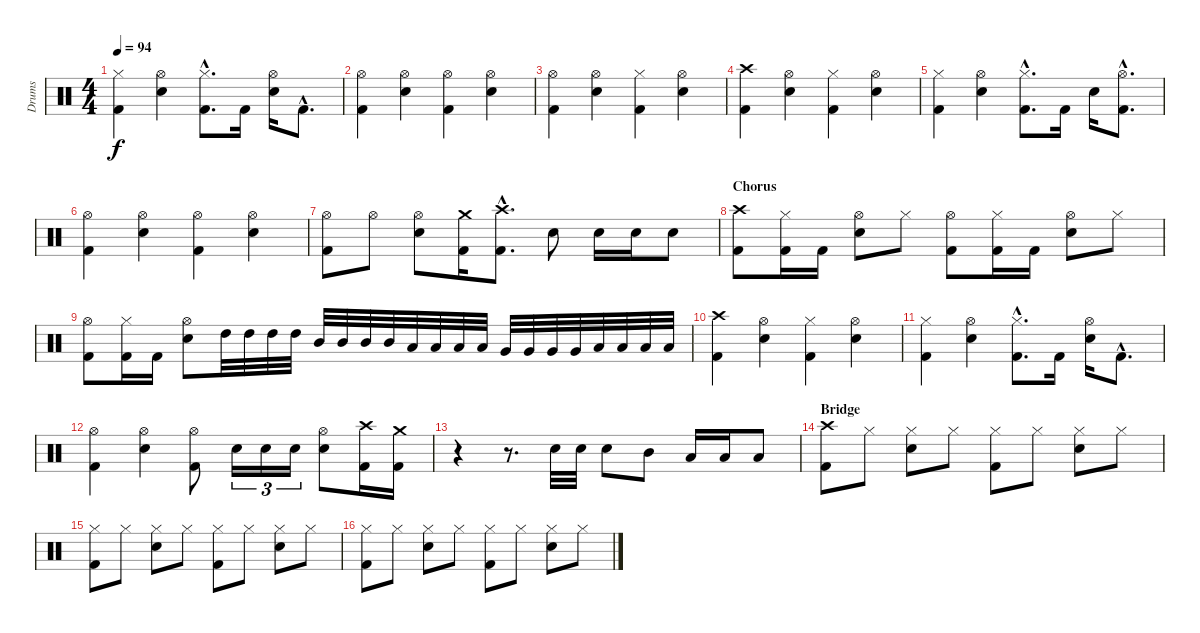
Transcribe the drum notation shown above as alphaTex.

\track ("Drums" "Drums") {instrument percussion}
\staff {score}
\articulation defaults
\ts (4 4)
\tempo 94
\clef neutral
\ks c
("Hi-Hat (closed)" "Kick (hit) 2").4{dy f} ("Hi-Hat (open)" "Snare (hit) 2").4 ("Hi-Hat (closed)"{hac} "Kick (hit) 2"{hac}).8{d} "Kick (hit) 2".16 ("Hi-Hat (open)" "Snare (hit) 2").16 "Kick (hit) 2"{hac}.8{d} |
("Hi-Hat (open)" "Kick (hit) 2").4 ("Hi-Hat (open)" "Snare (hit) 2").4 ("Hi-Hat (open)" "Kick (hit) 2").4 ("Hi-Hat (open)" "Snare (hit) 2").4 |
("Hi-Hat (open)" "Kick (hit) 2").4 ("Hi-Hat (open)" "Snare (hit) 2").4 ("Hi-Hat (closed)" "Kick (hit) 2").4 ("Hi-Hat (open)" "Snare (hit) 2").4 |
("Crash high (hit)" "Kick (hit) 2").4 ("Hi-Hat (open)" "Snare (hit) 2").4 ("Hi-Hat (closed)" "Kick (hit) 2").4 ("Hi-Hat (open)" "Snare (hit) 2").4 |
("Hi-Hat (closed)" "Kick (hit) 2").4 ("Hi-Hat (open)" "Snare (hit) 2").4 ("Hi-Hat (closed)"{hac} "Kick (hit) 2"{hac}).8{d} "Kick (hit) 2".16 "Snare (hit) 2".16 ("Hi-Hat (open)"{hac} "Kick (hit) 2"{hac}).8{d} |
("Hi-Hat (open)" "Kick (hit) 2").4 ("Hi-Hat (open)" "Snare (hit) 2").4 ("Hi-Hat (open)" "Kick (hit) 2").4 ("Hi-Hat (open)" "Snare (hit) 2").4 |
("Hi-Hat (open)" "Kick (hit) 2").8 "Hi-Hat (open)".8 ("Hi-Hat (open)" "Snare (hit) 2").8 ("Crash medium (hit)" "Kick (hit) 2").16 ("Crash high (hit)"{hac} "Kick (hit) 2"{hac}).8{d} "Snare (hit) 2".8 "Snare (hit) 2".16 "Snare (hit) 2".16 "Snare (hit) 2".8 |
\section ("" "Chorus")
("Crash high (hit)" "Kick (hit) 2").8 ("Hi-Hat (closed)" "Kick (hit) 2").16 "Kick (hit) 2".16 ("Hi-Hat (open)" "Snare (hit) 2").8 "Hi-Hat (closed)".8 ("Hi-Hat (open)" "Kick (hit) 2").8 ("Hi-Hat (closed)" "Kick (hit) 2").16 "Kick (hit) 2".16 ("Hi-Hat (open)" "Snare (hit) 2").8 "Hi-Hat (closed)".8 |
("Hi-Hat (open)" "Kick (hit) 2").8 ("Hi-Hat (closed)" "Kick (hit) 2").16 "Kick (hit) 2".16 ("Hi-Hat (open)" "Snare (hit) 2").8 "High Tom (hit)".32 "High Tom (hit)".32 "High Tom (hit)".32 "High Tom (hit)".32 "Mid Tom (hit)".32 "Mid Tom (hit)".32 "Mid Tom (hit)".32 "Mid Tom (hit)".32 "Low Tom (hit)".32 "Low Tom (hit)".32 "Low Tom (hit)".32 "Low Tom (hit)".32 "Very Low Tom (hit)".32 "Very Low Tom (hit)".32 "Very Low Tom (hit)".32 "Very Low Tom (hit)".32 "Low Floor Tom (hit)".32 "Low Floor Tom (hit)".32 "Low Floor Tom (hit)".32 "Low Floor Tom (hit)".32 |
("Crash high (hit)" "Kick (hit) 2").4 ("Hi-Hat (open)" "Snare (hit) 2").4 ("Hi-Hat (closed)" "Kick (hit) 2").4 ("Hi-Hat (open)" "Snare (hit) 2").4 |
("Hi-Hat (closed)" "Kick (hit) 2").4 ("Hi-Hat (open)" "Snare (hit) 2").4 ("Hi-Hat (closed)"{hac} "Kick (hit) 2"{hac}).8{d} "Kick (hit) 2".16 ("Hi-Hat (open)" "Snare (hit) 2").16 "Kick (hit) 2"{hac}.8{d} |
("Hi-Hat (open)" "Kick (hit) 2").4 ("Hi-Hat (open)" "Snare (hit) 2").4 ("Hi-Hat (open)" "Kick (hit) 2").8 "Snare (hit) 2".16{tu (3 2)} "Snare (hit) 2".16{tu (3 2)} "Snare (hit) 2".16{tu (3 2)} ("Hi-Hat (open)" "Snare (hit) 2").8 ("Crash high (hit)" "Kick (hit) 2").16 ("Crash medium (hit)" "Kick (hit) 2").16 |
r.4 r.8{d} "Snare (hit) 2".32 "Snare (hit) 2".32 "Snare (hit) 2".8 "Mid Tom (hit)".8 "Low Tom (hit)".16 "Low Tom (hit)".16 "Low Tom (hit)".8 |
\section ("" "Bridge")
("Crash high (hit)" "Kick (hit) 2").8 "Hi-Hat (closed)".8 ("Hi-Hat (closed)" "Snare (hit) 2").8 "Hi-Hat (closed)".8 ("Hi-Hat (closed)" "Kick (hit) 2").8 "Hi-Hat (closed)".8 ("Hi-Hat (closed)" "Snare (hit) 2").8 "Hi-Hat (closed)".8 |
("Hi-Hat (closed)" "Kick (hit) 2").8 "Hi-Hat (closed)".8 ("Hi-Hat (closed)" "Snare (hit) 2").8 "Hi-Hat (closed)".8 ("Hi-Hat (closed)" "Kick (hit) 2").8 "Hi-Hat (closed)".8 ("Hi-Hat (closed)" "Snare (hit) 2").8 "Hi-Hat (closed)".8 |
("Hi-Hat (closed)" "Kick (hit) 2").8 "Hi-Hat (closed)".8 ("Hi-Hat (closed)" "Snare (hit) 2").8 "Hi-Hat (closed)".8 ("Hi-Hat (closed)" "Kick (hit) 2").8 "Hi-Hat (closed)".8 ("Hi-Hat (closed)" "Snare (hit) 2").8 "Hi-Hat (closed)".8
